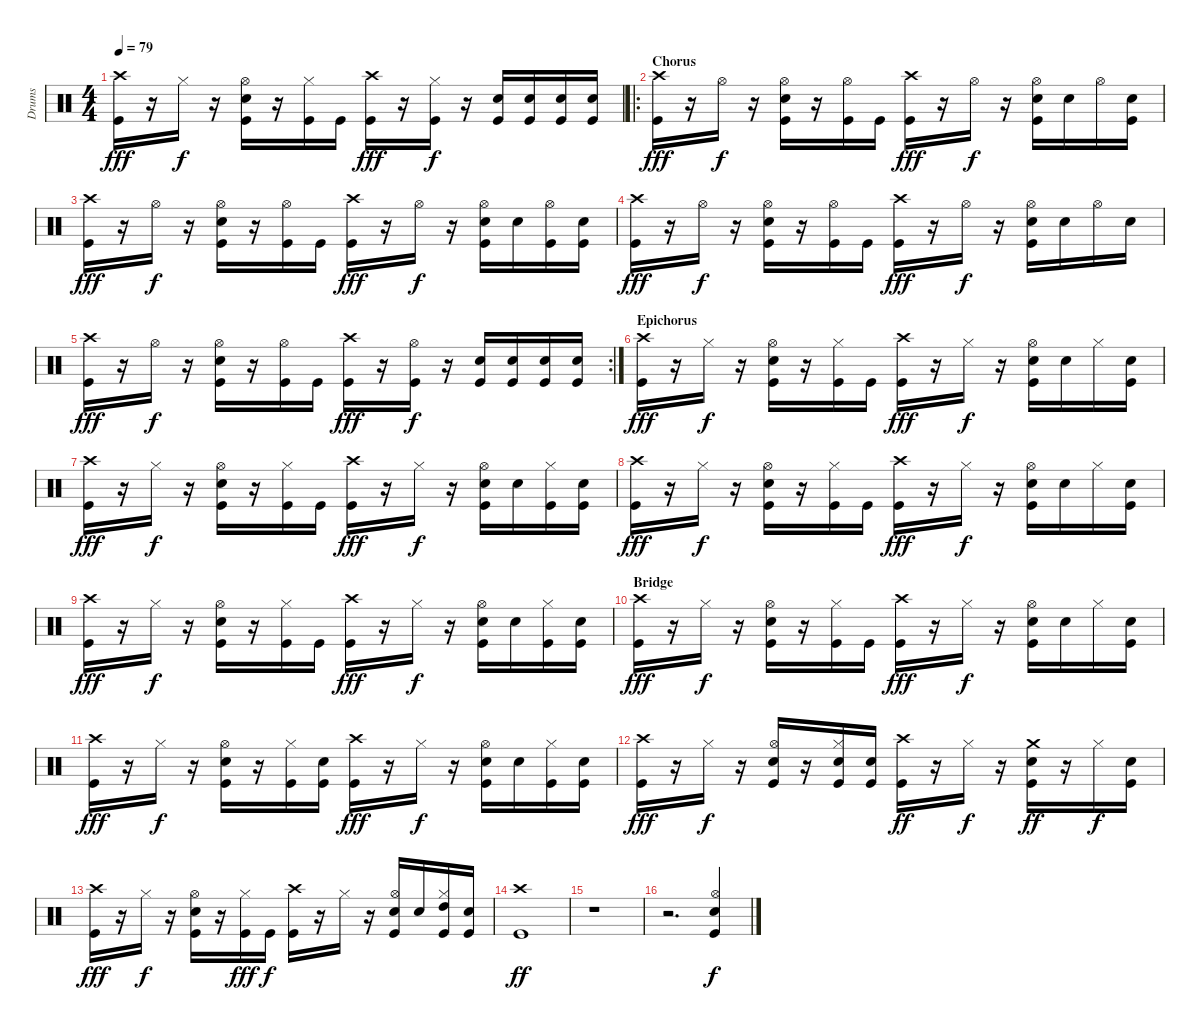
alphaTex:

\track ("Drums" "Drums") {instrument percussion}
\staff {score}
\articulation defaults
\ts (4 4)
\tempo 79
\clef neutral
\ks c
("Crash high (hit)" "Kick (hit)").16{dy fff} r.16 "Hi-Hat (closed)".16{dy f} r.16 ("Hi-Hat (open)" "Electric Snare (hit)" "Kick (hit)").16 r.16 ("Hi-Hat (closed)" "Kick (hit)").16 "Kick (hit)".16 ("Crash high (hit)" "Kick (hit)").16{dy fff} r.16 ("Hi-Hat (closed)" "Kick (hit)").16{dy f} r.16 ("Electric Snare (hit)" "Kick (hit)").16 ("Electric Snare (hit)" "Kick (hit)").16 ("Electric Snare (hit)" "Kick (hit)").16 ("Electric Snare (hit)" "Kick (hit)").16 |
\ro
\section ("" "Chorus")
("Crash high (hit)" "Kick (hit)").16{dy fff} r.16 "Hi-Hat (open)".16{dy f} r.16 ("Hi-Hat (open)" "Electric Snare (hit)" "Kick (hit)").16 r.16 ("Hi-Hat (open)" "Kick (hit)").16 "Kick (hit)".16 ("Crash high (hit)" "Kick (hit)").16{dy fff} r.16 "Hi-Hat (open)".16{dy f} r.16 ("Hi-Hat (open)" "Electric Snare (hit)" "Kick (hit)").16 "Electric Snare (hit)".16 "Hi-Hat (open)".16 ("Electric Snare (hit)" "Kick (hit)").16 |
("Crash high (hit)" "Kick (hit)").16{dy fff} r.16 "Hi-Hat (open)".16{dy f} r.16 ("Hi-Hat (open)" "Electric Snare (hit)" "Kick (hit)").16 r.16 ("Hi-Hat (open)" "Kick (hit)").16 "Kick (hit)".16 ("Crash high (hit)" "Kick (hit)").16{dy fff} r.16 "Hi-Hat (open)".16{dy f} r.16 ("Hi-Hat (open)" "Electric Snare (hit)" "Kick (hit)").16 "Electric Snare (hit)".16 ("Hi-Hat (open)" "Kick (hit)").16 ("Electric Snare (hit)" "Kick (hit)").16 |
("Crash high (hit)" "Kick (hit)").16{dy fff} r.16 "Hi-Hat (open)".16{dy f} r.16 ("Hi-Hat (open)" "Electric Snare (hit)" "Kick (hit)").16 r.16 ("Hi-Hat (open)" "Kick (hit)").16 "Kick (hit)".16 ("Crash high (hit)" "Kick (hit)").16{dy fff} r.16 "Hi-Hat (open)".16{dy f} r.16 ("Hi-Hat (open)" "Electric Snare (hit)" "Kick (hit)").16 "Electric Snare (hit)".16 "Hi-Hat (open)".16 "Electric Snare (hit)".16 |
\rc 2
("Crash high (hit)" "Kick (hit)").16{dy fff} r.16 "Hi-Hat (open)".16{dy f} r.16 ("Hi-Hat (open)" "Electric Snare (hit)" "Kick (hit)").16 r.16 ("Hi-Hat (open)" "Kick (hit)").16 "Kick (hit)".16 ("Crash high (hit)" "Kick (hit)").16{dy fff} r.16 ("Hi-Hat (open)" "Kick (hit)").16{dy f} r.16 ("Electric Snare (hit)" "Kick (hit)").16 ("Electric Snare (hit)" "Kick (hit)").16 ("Electric Snare (hit)" "Kick (hit)").16 ("Electric Snare (hit)" "Kick (hit)").16 |
\section ("" "Epichorus")
("Crash high (hit)" "Kick (hit)").16{dy fff volume 11} r.16 "Hi-Hat (closed)".16{dy f} r.16 ("Hi-Hat (open)" "Electric Snare (hit)" "Kick (hit)").16 r.16 ("Hi-Hat (closed)" "Kick (hit)").16 "Kick (hit)".16 ("Crash high (hit)" "Kick (hit)").16{dy fff} r.16 "Hi-Hat (closed)".16{dy f} r.16 ("Hi-Hat (open)" "Electric Snare (hit)" "Kick (hit)").16 "Electric Snare (hit)".16 "Hi-Hat (closed)".16 ("Electric Snare (hit)" "Kick (hit)").16 |
("Crash high (hit)" "Kick (hit)").16{dy fff} r.16 "Hi-Hat (closed)".16{dy f} r.16 ("Hi-Hat (open)" "Electric Snare (hit)" "Kick (hit)").16 r.16 ("Hi-Hat (closed)" "Kick (hit)").16 "Kick (hit)".16 ("Crash high (hit)" "Kick (hit)").16{dy fff} r.16 "Hi-Hat (closed)".16{dy f} r.16 ("Hi-Hat (open)" "Electric Snare (hit)" "Kick (hit)").16 "Electric Snare (hit)".16 ("Hi-Hat (closed)" "Kick (hit)").16 ("Electric Snare (hit)" "Kick (hit)").16 |
("Crash high (hit)" "Kick (hit)").16{dy fff volume 11} r.16 "Hi-Hat (closed)".16{dy f} r.16 ("Hi-Hat (open)" "Electric Snare (hit)" "Kick (hit)").16 r.16 ("Hi-Hat (closed)" "Kick (hit)").16 "Kick (hit)".16 ("Crash high (hit)" "Kick (hit)").16{dy fff} r.16 "Hi-Hat (closed)".16{dy f} r.16 ("Hi-Hat (open)" "Electric Snare (hit)" "Kick (hit)").16 "Electric Snare (hit)".16 "Hi-Hat (closed)".16 ("Electric Snare (hit)" "Kick (hit)").16 |
("Crash high (hit)" "Kick (hit)").16{dy fff} r.16 "Hi-Hat (closed)".16{dy f} r.16 ("Hi-Hat (open)" "Electric Snare (hit)" "Kick (hit)").16 r.16 ("Hi-Hat (closed)" "Kick (hit)").16 "Kick (hit)".16 ("Crash high (hit)" "Kick (hit)").16{dy fff} r.16 "Hi-Hat (closed)".16{dy f} r.16 ("Hi-Hat (open)" "Electric Snare (hit)" "Kick (hit)").16 "Electric Snare (hit)".16 ("Hi-Hat (closed)" "Kick (hit)").16 ("Electric Snare (hit)" "Kick (hit)").16 |
\section ("" "Bridge")
("Crash high (hit)" "Kick (hit)").16{dy fff volume 11} r.16 "Hi-Hat (closed)".16{dy f} r.16 ("Hi-Hat (open)" "Electric Snare (hit)" "Kick (hit)").16 r.16 ("Hi-Hat (closed)" "Kick (hit)").16 "Kick (hit)".16 ("Crash high (hit)" "Kick (hit)").16{dy fff} r.16 "Hi-Hat (closed)".16{dy f} r.16 ("Hi-Hat (open)" "Electric Snare (hit)" "Kick (hit)").16 "Electric Snare (hit)".16 "Hi-Hat (closed)".16 ("Electric Snare (hit)" "Kick (hit)").16 |
("Crash high (hit)" "Kick (hit)").16{dy fff} r.16 "Hi-Hat (closed)".16{dy f} r.16 ("Hi-Hat (open)" "Electric Snare (hit)" "Kick (hit)").16 r.16 ("Hi-Hat (closed)" "Kick (hit)").16 ("Electric Snare (hit)" "Kick (hit)").16 ("Crash high (hit)" "Kick (hit)").16{dy fff} r.16 "Hi-Hat (closed)".16{dy f} r.16 ("Hi-Hat (open)" "Electric Snare (hit)" "Kick (hit)").16 "Electric Snare (hit)".16 ("Hi-Hat (closed)" "Kick (hit)").16 ("Electric Snare (hit)" "Kick (hit)").16 |
("Crash high (hit)" "Kick (hit)").16{dy fff volume 11} r.16 "Hi-Hat (closed)".16{dy f} r.16 ("Hi-Hat (open)" "Electric Snare (hit)" "Kick (hit)").16 r.16 ("Hi-Hat (closed)" "Electric Snare (hit)" "Kick (hit)").16 ("Electric Snare (hit)" "Kick (hit)").16 ("Crash high (hit)" "Kick (hit)").16{dy ff} r.16 "Hi-Hat (closed)".16{dy f} r.16 ("Crash medium (hit)" "Electric Snare (hit)" "Kick (hit)").16{dy ff} r.16 "Hi-Hat (closed)".16{dy f} ("Electric Snare (hit)" "Kick (hit)").16 |
("Crash high (hit)" "Kick (hit)").16{dy fff} r.16 "Hi-Hat (closed)".16{dy f} r.16 ("Hi-Hat (open)" "Electric Snare (hit)" "Kick (hit)").16 r.16 ("Hi-Hat (closed)" "Kick (hit)").16{dy fff} "Kick (hit)".16{dy f} ("Crash high (hit)" "Kick (hit)").16 r.16 "Hi-Hat (closed)".16 r.16 ("Hi-Hat (open)" "Electric Snare (hit)" "Kick (hit)").16 "Electric Snare (hit)".16 ("Hi-Hat (closed)" "High Tom (hit)" "Kick (hit)").16 ("Electric Snare (hit)" "Kick (hit)").16 |
("Crash high (hit)" "Kick (hit)").1{dy ff} |
r.1 |
r.2{d} ("Hi-Hat (open)" "Electric Snare (hit)" "Kick (hit)").4{dy f}
